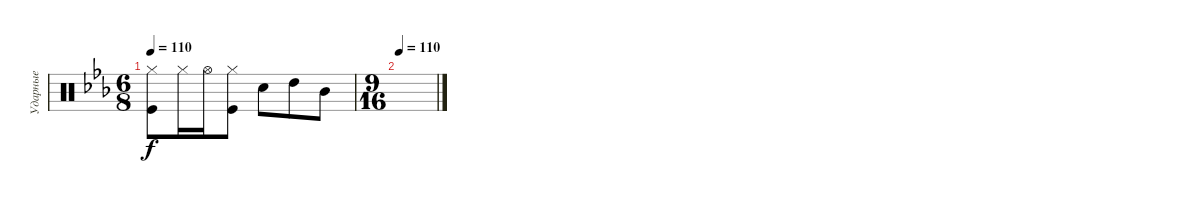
\track ("Ударные" "Ударные") {instrument percussion}
\staff {score}
\articulation defaults
\ts (6 8)
\tempo 110
\clef neutral
\ks cminor
("Kick (hit)" "Hi-Hat (closed)").8{dy f} "Hi-Hat (closed)".16 "Hi-Hat (open)".16 ("Hi-Hat (closed)" "Kick (hit)").8 "Snare (hit) 2".8 "High Tom (hit)".8 "Mid Tom (hit)".8 |
\ts (9 16)
\tempo 110
